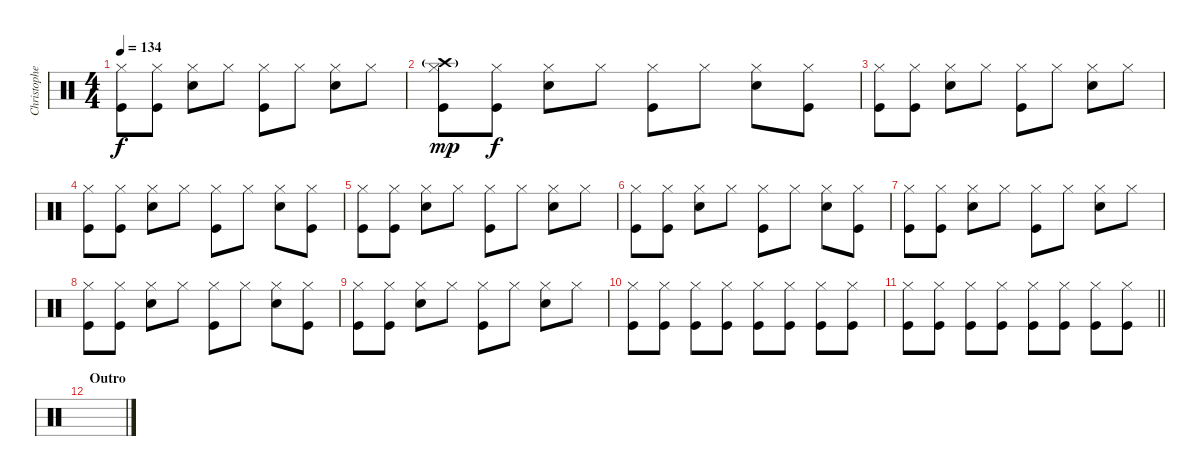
\track ("Christopher - Drums" "Christophe") {instrument percussion}
\staff {score}
\articulation defaults
\ts (4 4)
\tempo 134
\clef neutral
\ks c
("Hi-Hat (closed)" "Kick (hit)").8{dy f} ("Hi-Hat (closed)" "Kick (hit)").8 ("Hi-Hat (closed)" "Snare (hit) 2").8 "Hi-Hat (closed)".8 ("Hi-Hat (closed)" "Kick (hit)").8 "Hi-Hat (closed)".8 ("Hi-Hat (closed)" "Snare (hit) 2").8 "Hi-Hat (closed)".8 |
("Crash high (hit)"{g} "Hi-Hat (closed)" "Kick (hit)").8{dy mp} ("Hi-Hat (closed)" "Kick (hit)").8{dy f} ("Hi-Hat (closed)" "Snare (hit) 2").8 "Hi-Hat (closed)".8 ("Hi-Hat (closed)" "Kick (hit)").8 "Hi-Hat (closed)".8 ("Hi-Hat (closed)" "Snare (hit) 2").8 ("Hi-Hat (closed)" "Kick (hit)").8 |
("Hi-Hat (closed)" "Kick (hit)").8 ("Hi-Hat (closed)" "Kick (hit)").8 ("Hi-Hat (closed)" "Snare (hit) 2").8 "Hi-Hat (closed)".8 ("Hi-Hat (closed)" "Kick (hit)").8 "Hi-Hat (closed)".8 ("Hi-Hat (closed)" "Snare (hit) 2").8 "Hi-Hat (closed)".8 |
("Hi-Hat (closed)" "Kick (hit)").8 ("Hi-Hat (closed)" "Kick (hit)").8 ("Hi-Hat (closed)" "Snare (hit) 2").8 "Hi-Hat (closed)".8 ("Hi-Hat (closed)" "Kick (hit)").8 "Hi-Hat (closed)".8 ("Hi-Hat (closed)" "Snare (hit) 2").8 ("Hi-Hat (closed)" "Kick (hit)").8 |
("Hi-Hat (closed)" "Kick (hit)").8 ("Hi-Hat (closed)" "Kick (hit)").8 ("Hi-Hat (closed)" "Snare (hit) 2").8 "Hi-Hat (closed)".8 ("Hi-Hat (closed)" "Kick (hit)").8 "Hi-Hat (closed)".8 ("Hi-Hat (closed)" "Snare (hit) 2").8 "Hi-Hat (closed)".8 |
("Hi-Hat (closed)" "Kick (hit)").8 ("Hi-Hat (closed)" "Kick (hit)").8 ("Hi-Hat (closed)" "Snare (hit) 2").8 "Hi-Hat (closed)".8 ("Hi-Hat (closed)" "Kick (hit)").8 "Hi-Hat (closed)".8 ("Hi-Hat (closed)" "Snare (hit) 2").8 ("Hi-Hat (closed)" "Kick (hit)").8 |
("Hi-Hat (closed)" "Kick (hit)").8 ("Hi-Hat (closed)" "Kick (hit)").8 ("Hi-Hat (closed)" "Snare (hit) 2").8 "Hi-Hat (closed)".8 ("Hi-Hat (closed)" "Kick (hit)").8 "Hi-Hat (closed)".8 ("Hi-Hat (closed)" "Snare (hit) 2").8 "Hi-Hat (closed)".8 |
("Hi-Hat (closed)" "Kick (hit)").8 ("Hi-Hat (closed)" "Kick (hit)").8 ("Hi-Hat (closed)" "Snare (hit) 2").8 "Hi-Hat (closed)".8 ("Hi-Hat (closed)" "Kick (hit)").8 "Hi-Hat (closed)".8 ("Hi-Hat (closed)" "Snare (hit) 2").8 ("Hi-Hat (closed)" "Kick (hit)").8 |
("Hi-Hat (closed)" "Kick (hit)").8 ("Hi-Hat (closed)" "Kick (hit)").8 ("Hi-Hat (closed)" "Snare (hit) 2").8 "Hi-Hat (closed)".8 ("Hi-Hat (closed)" "Kick (hit)").8 "Hi-Hat (closed)".8 ("Hi-Hat (closed)" "Snare (hit) 2").8 "Hi-Hat (closed)".8 |
("Hi-Hat (closed)" "Kick (hit)").8 ("Hi-Hat (closed)" "Kick (hit)").8 ("Hi-Hat (closed)" "Kick (hit)").8 ("Hi-Hat (closed)" "Kick (hit)").8 ("Hi-Hat (closed)" "Kick (hit)").8 ("Hi-Hat (closed)" "Kick (hit)").8 ("Hi-Hat (closed)" "Kick (hit)").8 ("Hi-Hat (closed)" "Kick (hit)").8 |
\barLineRight lightlight
("Hi-Hat (closed)" "Kick (hit)").8 ("Hi-Hat (closed)" "Kick (hit)").8 ("Hi-Hat (closed)" "Kick (hit)").8 ("Hi-Hat (closed)" "Kick (hit)").8 ("Hi-Hat (closed)" "Kick (hit)").8 ("Hi-Hat (closed)" "Kick (hit)").8 ("Hi-Hat (closed)" "Kick (hit)").8 ("Hi-Hat (closed)" "Kick (hit)").8 |
\section ("" "Outro")
